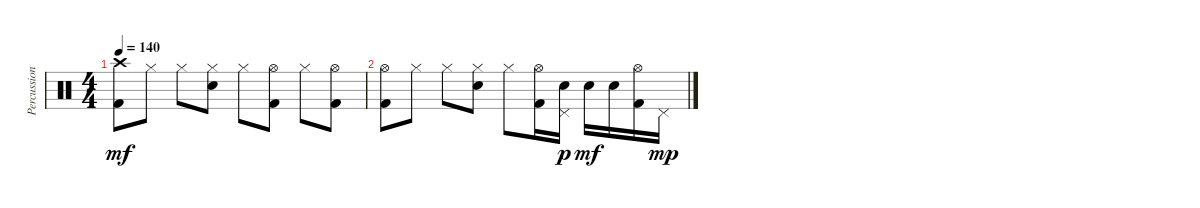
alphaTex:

\track ("Percussion" "Percussion") {instrument percussion}
\staff {score}
\articulation defaults
\ts (4 4)
\tempo 140
\clef neutral
\ks c
("Crash high (hit)" "Kick (hit) 2").8{dy mf} "Hi-Hat (closed)".8 "Hi-Hat (closed)".8 ("Hi-Hat (closed)" "Snare (hit) 2").8 "Hi-Hat (closed)".8 ("Hi-Hat (open)" "Kick (hit) 2").8 "Hi-Hat (closed)".8 ("Hi-Hat (open)" "Kick (hit) 2").8 |
("Hi-Hat (open)" "Kick (hit) 2").8 "Hi-Hat (closed)".8 "Hi-Hat (closed)".8 ("Hi-Hat (closed)" "Snare (hit) 2").8 "Hi-Hat (closed)".8 ("Hi-Hat (open)" "Kick (hit) 2").16 ("Pedal Hi-Hat (hit)" "Snare (hit) 2").16{dy p} "Snare (hit) 2".16{dy mf} "Snare (hit) 2".16 ("Hi-Hat (open)" "Kick (hit) 2").16 "Pedal Hi-Hat (hit)".16{dy mp}
